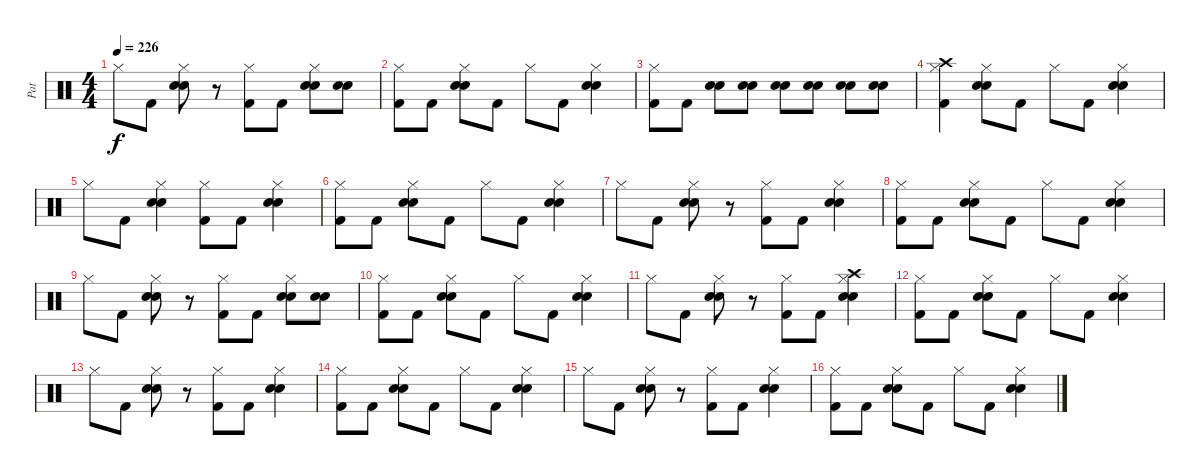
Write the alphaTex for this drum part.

\track ("Pat" "Pat") {instrument percussion}
\staff {score}
\articulation defaults
\ts (4 4)
\tempo 226
\clef neutral
\ks c "Hi-Hat (closed)".8{dy f} "Kick (hit) 2".8
("Hi-Hat (closed)" "Snare (hit) 2" "Electric Snare (hit)").8 r.8 ("Hi-Hat (closed)" "Kick (hit) 2").8 "Kick (hit) 2".8 ("Hi-Hat (closed)" "Snare (hit) 2" "Electric Snare (hit)").8 ("Snare (hit) 2" "Electric Snare (hit)").8 |
("Hi-Hat (closed)" "Kick (hit) 2").8 "Kick (hit) 2".8 ("Hi-Hat (closed)" "Snare (hit) 2" "Electric Snare (hit)").8 "Kick (hit) 2".8 "Hi-Hat (closed)".8 "Kick (hit) 2".8 ("Hi-Hat (closed)" "Snare (hit) 2" "Electric Snare (hit)").4 |
("Hi-Hat (closed)" "Kick (hit) 2").8 "Kick (hit) 2".8 ("Snare (hit) 2" "Electric Snare (hit)").8 ("Snare (hit) 2" "Electric Snare (hit)").8 ("Snare (hit) 2" "Electric Snare (hit)").8 ("Snare (hit) 2" "Electric Snare (hit)").8 ("Snare (hit) 2" "Electric Snare (hit)").8 ("Snare (hit) 2" "Electric Snare (hit)").8 |
("Hi-Hat (closed)" "Crash high (hit)" "Kick (hit) 2").4 ("Hi-Hat (closed)" "Snare (hit) 2" "Electric Snare (hit)").8 "Kick (hit) 2".8 "Hi-Hat (closed)".8 "Kick (hit) 2".8 ("Hi-Hat (closed)" "Snare (hit) 2" "Electric Snare (hit)").4 |
"Hi-Hat (closed)".8 "Kick (hit) 2".8 ("Hi-Hat (closed)" "Snare (hit) 2" "Electric Snare (hit)").4 ("Hi-Hat (closed)" "Kick (hit) 2").8 "Kick (hit) 2".8 ("Hi-Hat (closed)" "Snare (hit) 2" "Electric Snare (hit)").4 |
("Hi-Hat (closed)" "Kick (hit) 2").8 "Kick (hit) 2".8 ("Hi-Hat (closed)" "Snare (hit) 2" "Electric Snare (hit)").8 "Kick (hit) 2".8 "Hi-Hat (closed)".8 "Kick (hit) 2".8 ("Hi-Hat (closed)" "Snare (hit) 2" "Electric Snare (hit)").4 |
"Hi-Hat (closed)".8 "Kick (hit) 2".8 ("Hi-Hat (closed)" "Snare (hit) 2" "Electric Snare (hit)").8 r.8 ("Hi-Hat (closed)" "Kick (hit) 2").8 "Kick (hit) 2".8 ("Hi-Hat (closed)" "Snare (hit) 2" "Electric Snare (hit)").4 |
("Hi-Hat (closed)" "Kick (hit) 2").8 "Kick (hit) 2".8 ("Hi-Hat (closed)" "Snare (hit) 2" "Electric Snare (hit)").8 "Kick (hit) 2".8 "Hi-Hat (closed)".8 "Kick (hit) 2".8 ("Hi-Hat (closed)" "Snare (hit) 2" "Electric Snare (hit)").4 |
"Hi-Hat (closed)".8 "Kick (hit) 2".8 ("Hi-Hat (closed)" "Snare (hit) 2" "Electric Snare (hit)").8 r.8 ("Hi-Hat (closed)" "Kick (hit) 2").8 "Kick (hit) 2".8 ("Hi-Hat (closed)" "Snare (hit) 2" "Electric Snare (hit)").8 ("Snare (hit) 2" "Electric Snare (hit)").8 |
("Hi-Hat (closed)" "Kick (hit) 2").8 "Kick (hit) 2".8 ("Hi-Hat (closed)" "Snare (hit) 2" "Electric Snare (hit)").8 "Kick (hit) 2".8 "Hi-Hat (closed)".8 "Kick (hit) 2".8 ("Hi-Hat (closed)" "Snare (hit) 2" "Electric Snare (hit)").4 |
"Hi-Hat (closed)".8 "Kick (hit) 2".8 ("Hi-Hat (closed)" "Snare (hit) 2" "Electric Snare (hit)").8 r.8 ("Hi-Hat (closed)" "Kick (hit) 2").8 "Kick (hit) 2".8 ("Hi-Hat (closed)" "Crash high (hit)" "Snare (hit) 2" "Electric Snare (hit)").4 |
("Hi-Hat (closed)" "Kick (hit) 2").8 "Kick (hit) 2".8 ("Hi-Hat (closed)" "Snare (hit) 2" "Electric Snare (hit)").8 "Kick (hit) 2".8 "Hi-Hat (closed)".8 "Kick (hit) 2".8 ("Hi-Hat (closed)" "Snare (hit) 2" "Electric Snare (hit)").4 |
"Hi-Hat (closed)".8 "Kick (hit) 2".8 ("Hi-Hat (closed)" "Snare (hit) 2" "Electric Snare (hit)").8 r.8 ("Hi-Hat (closed)" "Kick (hit) 2").8 "Kick (hit) 2".8 ("Hi-Hat (closed)" "Snare (hit) 2" "Electric Snare (hit)").4 |
("Hi-Hat (closed)" "Kick (hit) 2").8 "Kick (hit) 2".8 ("Hi-Hat (closed)" "Snare (hit) 2" "Electric Snare (hit)").8 "Kick (hit) 2".8 "Hi-Hat (closed)".8 "Kick (hit) 2".8 ("Hi-Hat (closed)" "Snare (hit) 2" "Electric Snare (hit)").4 |
"Hi-Hat (closed)".8 "Kick (hit) 2".8 ("Hi-Hat (closed)" "Snare (hit) 2" "Electric Snare (hit)").8 r.8 ("Hi-Hat (closed)" "Kick (hit) 2").8 "Kick (hit) 2".8 ("Hi-Hat (closed)" "Snare (hit) 2" "Electric Snare (hit)").4 |
("Hi-Hat (closed)" "Kick (hit) 2").8 "Kick (hit) 2".8 ("Hi-Hat (closed)" "Snare (hit) 2" "Electric Snare (hit)").8 "Kick (hit) 2".8 "Hi-Hat (closed)".8 "Kick (hit) 2".8 ("Hi-Hat (closed)" "Snare (hit) 2" "Electric Snare (hit)").4
